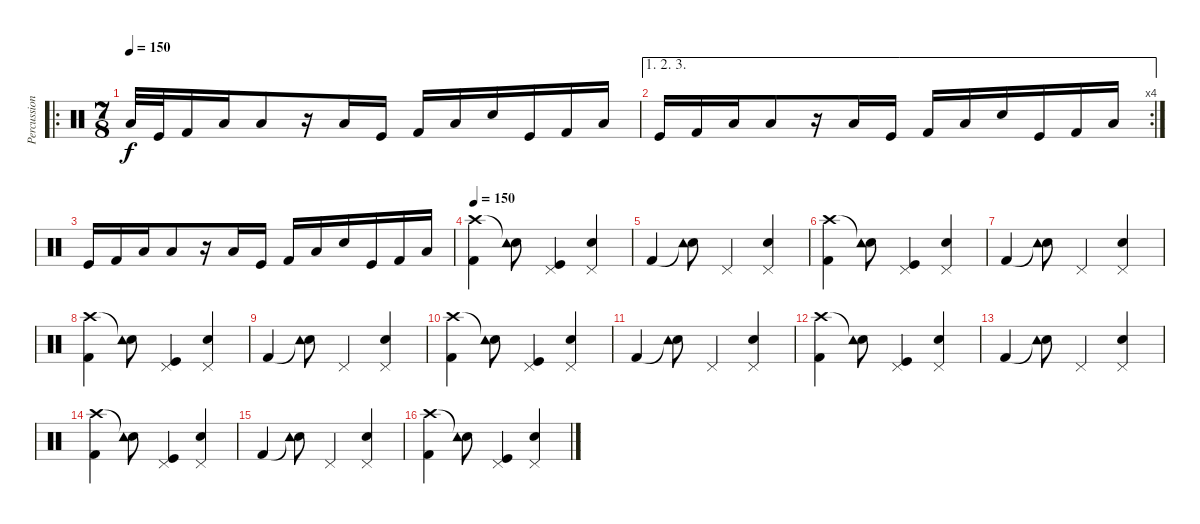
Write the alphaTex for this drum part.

\track ("Percussion" "Percussion") {instrument percussion}
\staff {score}
\articulation defaults
\ro
\ts (7 8)
\tempo 150
\tempo 160
\tempo 150
\clef neutral
\ks c "Low Floor Tom (hit)".32{dy f} "Kick (hit)".32 "Kick (hit) 2".16 "Low Floor Tom (hit)".16 "Low Floor Tom (hit)".8
r.16 "Low Floor Tom (hit)".16 "Kick (hit)".16 "Kick (hit) 2".16 "Low Floor Tom (hit)".16 "Snare (hit)".16 "Kick (hit)".16 "Kick (hit) 2".16 "Low Floor Tom (hit)".16 |
\ae (1 2 3)
\rc 4 "Kick (hit)".16 "Kick (hit) 2".16 "Low Floor Tom (hit)".16 "Low Floor Tom (hit)".8
r.16 "Low Floor Tom (hit)".16 "Kick (hit)".16 "Kick (hit) 2".16 "Low Floor Tom (hit)".16 "Snare (hit)".16 "Kick (hit)".16 "Kick (hit) 2".16 "Low Floor Tom (hit)".16 |
"Kick (hit)".16 "Kick (hit) 2".16 "Low Floor Tom (hit)".16 "Low Floor Tom (hit)".8 r.16 "Low Floor Tom (hit)".16 "Kick (hit)".16 "Kick (hit) 2".16 "Low Floor Tom (hit)".16 "Snare (hit)".16 "Kick (hit)".16 "Kick (hit) 2".16 "Low Floor Tom (hit)".16 |
\tempo 150
("Crash high (hit)" "Kick (hit) 2").4 ("Snare (hit)"{t} "Tambourine (hit)").8 ("Pedal Hi-Hat (hit)" "Kick (hit)").4 ("Pedal Hi-Hat (hit)" "Snare (hit) 2").4 |
"Kick (hit) 2".4 ("Snare (hit)"{t} "Tambourine (hit)").8 "Pedal Hi-Hat (hit)".4 ("Pedal Hi-Hat (hit)" "Snare (hit) 2").4 |
("Crash high (hit)" "Kick (hit) 2").4 ("Snare (hit)"{t} "Tambourine (hit)").8 ("Pedal Hi-Hat (hit)" "Kick (hit)").4 ("Pedal Hi-Hat (hit)" "Snare (hit) 2").4 |
"Kick (hit) 2".4 ("Snare (hit)"{t} "Tambourine (hit)").8 "Pedal Hi-Hat (hit)".4 ("Pedal Hi-Hat (hit)" "Snare (hit) 2").4 |
("Crash high (hit)" "Kick (hit) 2").4 ("Snare (hit)"{t} "Tambourine (hit)").8 ("Pedal Hi-Hat (hit)" "Kick (hit)").4 ("Pedal Hi-Hat (hit)" "Snare (hit) 2").4 |
"Kick (hit) 2".4 ("Snare (hit)"{t} "Tambourine (hit)").8 "Pedal Hi-Hat (hit)".4 ("Pedal Hi-Hat (hit)" "Snare (hit) 2").4 |
("Crash high (hit)" "Kick (hit) 2").4 ("Snare (hit)"{t} "Tambourine (hit)").8 ("Pedal Hi-Hat (hit)" "Kick (hit)").4 ("Pedal Hi-Hat (hit)" "Snare (hit) 2").4 |
"Kick (hit) 2".4 ("Snare (hit)"{t} "Tambourine (hit)").8 "Pedal Hi-Hat (hit)".4 ("Pedal Hi-Hat (hit)" "Snare (hit) 2").4 |
("Crash high (hit)" "Kick (hit) 2").4 ("Snare (hit)"{t} "Tambourine (hit)").8 ("Pedal Hi-Hat (hit)" "Kick (hit)").4 ("Pedal Hi-Hat (hit)" "Snare (hit) 2").4 |
"Kick (hit) 2".4 ("Snare (hit)"{t} "Tambourine (hit)").8 "Pedal Hi-Hat (hit)".4 ("Pedal Hi-Hat (hit)" "Snare (hit) 2").4 |
("Crash high (hit)" "Kick (hit) 2").4 ("Snare (hit)"{t} "Tambourine (hit)").8 ("Pedal Hi-Hat (hit)" "Kick (hit)").4 ("Pedal Hi-Hat (hit)" "Snare (hit) 2").4 |
"Kick (hit) 2".4 ("Snare (hit)"{t} "Tambourine (hit)").8 "Pedal Hi-Hat (hit)".4 ("Pedal Hi-Hat (hit)" "Snare (hit) 2").4 |
("Crash high (hit)" "Kick (hit) 2").4 ("Snare (hit)"{t} "Tambourine (hit)").8 ("Pedal Hi-Hat (hit)" "Kick (hit)").4 ("Pedal Hi-Hat (hit)" "Snare (hit) 2").4
